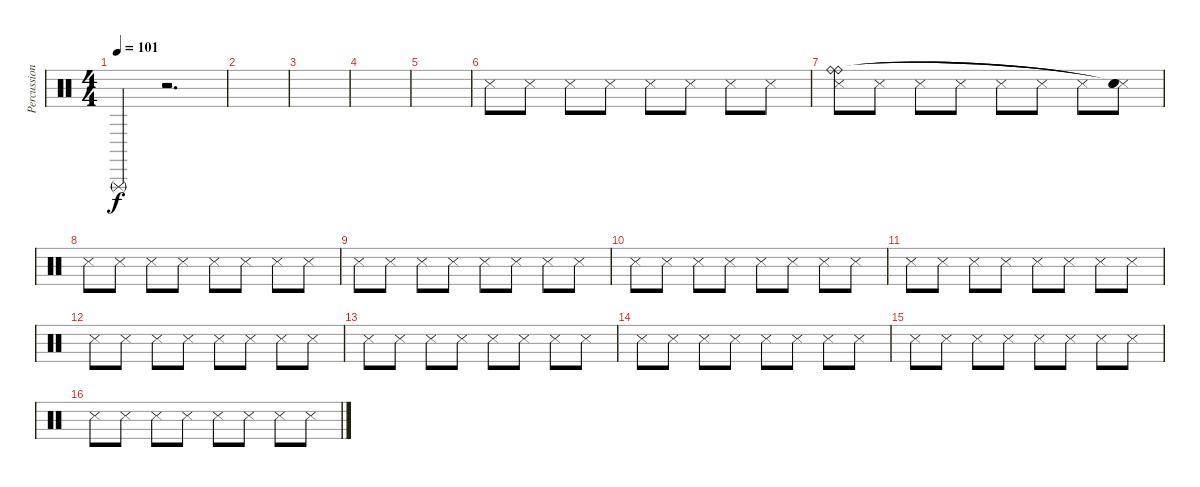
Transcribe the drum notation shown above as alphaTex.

\track ("Percussions" "Percussion") {instrument percussion}
\staff {score}
\articulation defaults
\ts (4 4)
\tempo 101
\clef neutral
\ks c "Triangle (rnute)".4{dy f}
r.2{d} |
|
|
|
|
"Metronome (hit)".8 "Metronome (hit)".8 "Metronome (hit)".8 "Metronome (hit)".8 "Metronome (hit)".8 "Metronome (hit)".8 "Metronome (hit)".8 "Metronome (hit)".8 |
("Metronome (hit)" "Ride (bell)" "Ride (bell)").8 "Metronome (hit)".8 "Metronome (hit)".8 "Metronome (hit)".8 "Metronome (hit)".8 "Metronome (hit)".8 "Metronome (hit)".8 ("Metronome (hit)" "Snare (hit)"{t} "Snare (hit)"{t}).8 |
"Metronome (hit)".8 "Metronome (hit)".8 "Metronome (hit)".8 "Metronome (hit)".8 "Metronome (hit)".8 "Metronome (hit)".8 "Metronome (hit)".8 "Metronome (hit)".8 |
"Metronome (hit)".8 "Metronome (hit)".8 "Metronome (hit)".8 "Metronome (hit)".8 "Metronome (hit)".8 "Metronome (hit)".8 "Metronome (hit)".8 "Metronome (hit)".8 |
"Metronome (hit)".8 "Metronome (hit)".8 "Metronome (hit)".8 "Metronome (hit)".8 "Metronome (hit)".8 "Metronome (hit)".8 "Metronome (hit)".8 "Metronome (hit)".8 |
"Metronome (hit)".8 "Metronome (hit)".8 "Metronome (hit)".8 "Metronome (hit)".8 "Metronome (hit)".8 "Metronome (hit)".8 "Metronome (hit)".8 "Metronome (hit)".8 |
"Metronome (hit)".8 "Metronome (hit)".8 "Metronome (hit)".8 "Metronome (hit)".8 "Metronome (hit)".8 "Metronome (hit)".8 "Metronome (hit)".8 "Metronome (hit)".8 |
"Metronome (hit)".8 "Metronome (hit)".8 "Metronome (hit)".8 "Metronome (hit)".8 "Metronome (hit)".8 "Metronome (hit)".8 "Metronome (hit)".8 "Metronome (hit)".8 |
"Metronome (hit)".8 "Metronome (hit)".8 "Metronome (hit)".8 "Metronome (hit)".8 "Metronome (hit)".8 "Metronome (hit)".8 "Metronome (hit)".8 "Metronome (hit)".8 |
"Metronome (hit)".8 "Metronome (hit)".8 "Metronome (hit)".8 "Metronome (hit)".8 "Metronome (hit)".8 "Metronome (hit)".8 "Metronome (hit)".8 "Metronome (hit)".8 |
"Metronome (hit)".8 "Metronome (hit)".8 "Metronome (hit)".8 "Metronome (hit)".8 "Metronome (hit)".8 "Metronome (hit)".8 "Metronome (hit)".8 "Metronome (hit)".8
